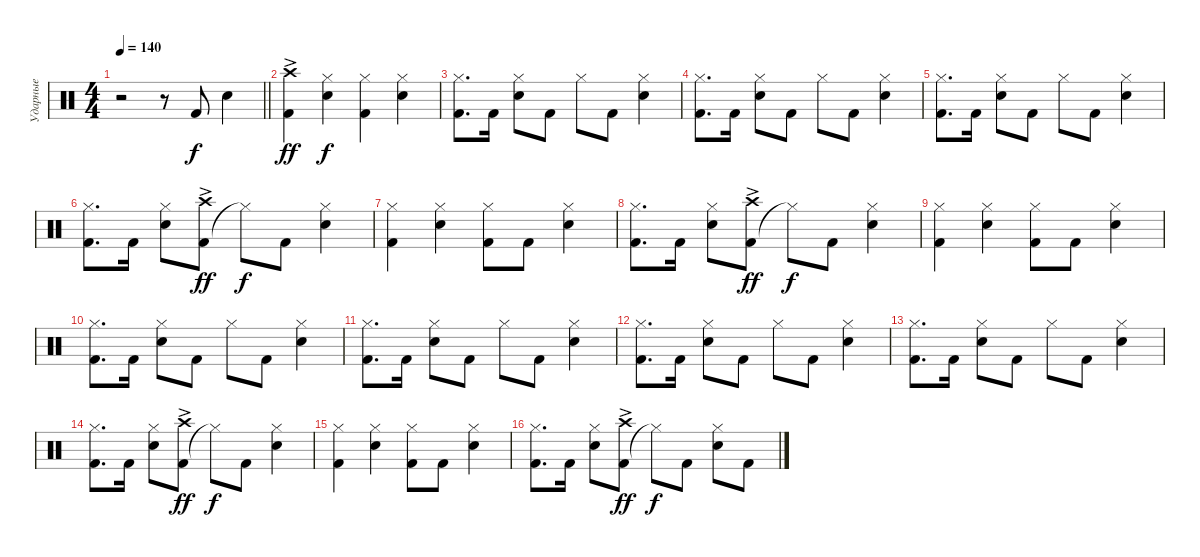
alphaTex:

\track ("Ударные" "Ударные") {instrument percussion}
\staff {score}
\articulation defaults
\ts (4 4)
\tempo 140
\clef neutral
\barLineRight lightlight
\ks c
r.2{dy f} r.8 "Kick (hit) 2".8 "Snare (hit) 2".4 |
("Kick (hit) 2" "Crash high (hit)"{ac}).4{dy ff} ("Snare (hit) 2" "Hi-Hat (closed)").4{dy f} ("Kick (hit) 2" "Hi-Hat (closed)").4 ("Snare (hit) 2" "Hi-Hat (closed)").4 |
("Kick (hit) 2" "Hi-Hat (closed)").8{d} "Kick (hit) 2".16 ("Snare (hit) 2" "Hi-Hat (closed)").8 "Kick (hit) 2".8 "Hi-Hat (closed)".8 "Kick (hit) 2".8 ("Snare (hit) 2" "Hi-Hat (closed)").4 |
("Kick (hit) 2" "Hi-Hat (closed)").8{d} "Kick (hit) 2".16 ("Snare (hit) 2" "Hi-Hat (closed)").8 "Kick (hit) 2".8 "Hi-Hat (closed)".8 "Kick (hit) 2".8 ("Snare (hit) 2" "Hi-Hat (closed)").4 |
("Kick (hit) 2" "Hi-Hat (closed)").8{d} "Kick (hit) 2".16 ("Snare (hit) 2" "Hi-Hat (closed)").8 "Kick (hit) 2".8 "Hi-Hat (closed)".8 "Kick (hit) 2".8 ("Snare (hit) 2" "Hi-Hat (closed)").4 |
("Kick (hit) 2" "Hi-Hat (closed)").8{d} "Kick (hit) 2".16 ("Snare (hit) 2" "Hi-Hat (closed)").8 ("Kick (hit) 2" "Crash high (hit)"{ac}).8{dy ff} "Hi-Hat (closed)"{t}.8{dy f} "Kick (hit) 2".8 ("Snare (hit) 2" "Hi-Hat (closed)").4 |
("Kick (hit) 2" "Hi-Hat (closed)").4 ("Snare (hit) 2" "Hi-Hat (closed)").4 ("Kick (hit) 2" "Hi-Hat (closed)").8 "Kick (hit) 2".8 ("Snare (hit) 2" "Hi-Hat (closed)").4 |
("Kick (hit) 2" "Hi-Hat (closed)").8{d} "Kick (hit) 2".16 ("Snare (hit) 2" "Hi-Hat (closed)").8 ("Kick (hit) 2" "Crash high (hit)"{ac}).8{dy ff} "Hi-Hat (closed)"{t}.8{dy f} "Kick (hit) 2".8 ("Snare (hit) 2" "Hi-Hat (closed)").4 |
("Kick (hit) 2" "Hi-Hat (closed)").4 ("Snare (hit) 2" "Hi-Hat (closed)").4 ("Kick (hit) 2" "Hi-Hat (closed)").8 "Kick (hit) 2".8 ("Snare (hit) 2" "Hi-Hat (closed)").4 |
("Kick (hit) 2" "Hi-Hat (closed)").8{d} "Kick (hit) 2".16 ("Snare (hit) 2" "Hi-Hat (closed)").8 "Kick (hit) 2".8 "Hi-Hat (closed)".8 "Kick (hit) 2".8 ("Snare (hit) 2" "Hi-Hat (closed)").4 |
("Kick (hit) 2" "Hi-Hat (closed)").8{d} "Kick (hit) 2".16 ("Snare (hit) 2" "Hi-Hat (closed)").8 "Kick (hit) 2".8 "Hi-Hat (closed)".8 "Kick (hit) 2".8 ("Snare (hit) 2" "Hi-Hat (closed)").4 |
("Kick (hit) 2" "Hi-Hat (closed)").8{d} "Kick (hit) 2".16 ("Snare (hit) 2" "Hi-Hat (closed)").8 "Kick (hit) 2".8 "Hi-Hat (closed)".8 "Kick (hit) 2".8 ("Snare (hit) 2" "Hi-Hat (closed)").4 |
("Kick (hit) 2" "Hi-Hat (closed)").8{d} "Kick (hit) 2".16 ("Snare (hit) 2" "Hi-Hat (closed)").8 "Kick (hit) 2".8 "Hi-Hat (closed)".8 "Kick (hit) 2".8 ("Snare (hit) 2" "Hi-Hat (closed)").4 |
("Kick (hit) 2" "Hi-Hat (closed)").8{d} "Kick (hit) 2".16 ("Snare (hit) 2" "Hi-Hat (closed)").8 ("Kick (hit) 2" "Crash high (hit)"{ac}).8{dy ff} "Hi-Hat (closed)"{t}.8{dy f} "Kick (hit) 2".8 ("Snare (hit) 2" "Hi-Hat (closed)").4 |
("Kick (hit) 2" "Hi-Hat (closed)").4 ("Snare (hit) 2" "Hi-Hat (closed)").4 ("Kick (hit) 2" "Hi-Hat (closed)").8 "Kick (hit) 2".8 ("Snare (hit) 2" "Hi-Hat (closed)").4 |
("Kick (hit) 2" "Hi-Hat (closed)").8{d} "Kick (hit) 2".16 ("Snare (hit) 2" "Hi-Hat (closed)").8 ("Kick (hit) 2" "Crash high (hit)"{ac}).8{dy ff} "Hi-Hat (closed)"{t}.8{dy f} "Kick (hit) 2".8 ("Snare (hit) 2" "Hi-Hat (closed)").8 "Kick (hit) 2".8
